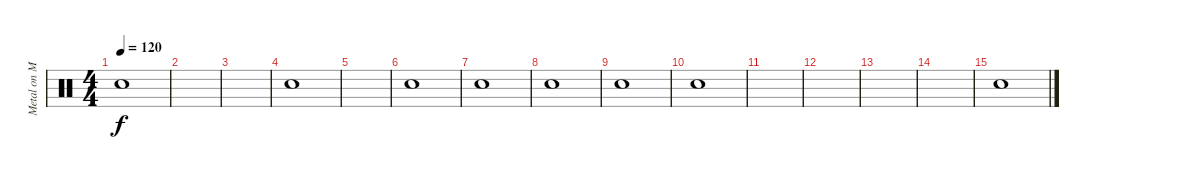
\track ("Metal on Metal" "Metal on M") {instrument percussion}
\staff {score}
\articulation defaults
\ts (4 4)
\tempo 120
\clef neutral
\ks c "Snare (hit)".1{dy f}
|
|
|
"Snare (hit)".1 |
|
"Snare (hit)".1 |
"Snare (hit)".1 |
"Snare (hit)".1 |
"Snare (hit)".1 |
"Snare (hit)".1 |
|
|
|
|
"Snare (hit)".1
